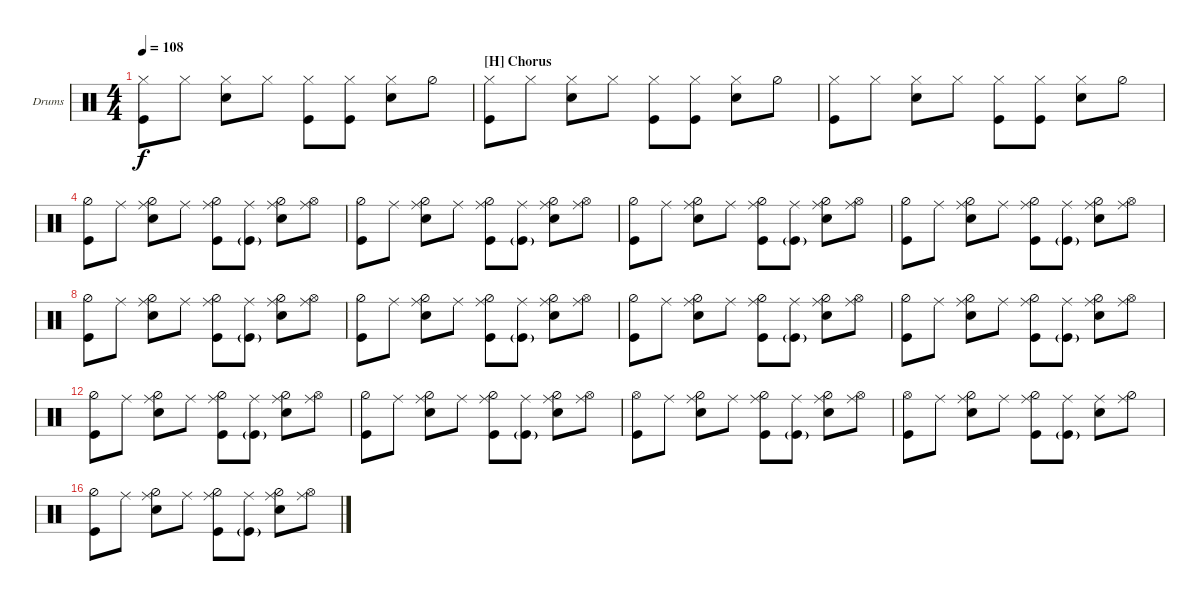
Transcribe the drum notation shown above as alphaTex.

\defaultSystemsLayout 4
\bracketExtendMode nobrackets
\firstSystemTrackNameOrientation horizontal
\otherSystemsTrackNameOrientation horizontal
\defaultBarNumberDisplay FirstOfSystem
\track ("Drumkit" "Drums") {instrument percussion}
\staff {score}
\articulation defaults
\ts (4 4)
\tempo 108
\clef neutral
\ks c
("Kick (hit)" "Hi-Hat (closed)").8{dy f} "Hi-Hat (closed)".8 ("Snare (hit) 2" "Hi-Hat (closed)").8 "Hi-Hat (closed)".8 ("Hi-Hat (closed)" "Kick (hit)").8 ("Hi-Hat (closed)" "Kick (hit)").8 ("Snare (hit) 2" "Hi-Hat (closed)").8 "Hi-Hat (half)".8 |
\section ("H" "Chorus")
("Kick (hit)" "Hi-Hat (closed)").8 "Hi-Hat (closed)".8 ("Snare (hit) 2" "Hi-Hat (closed)").8 "Hi-Hat (closed)".8 ("Hi-Hat (closed)" "Kick (hit)").8 ("Hi-Hat (closed)" "Kick (hit)").8 ("Snare (hit) 2" "Hi-Hat (closed)").8 "Hi-Hat (half)".8 |
("Kick (hit)" "Hi-Hat (closed)").8 "Hi-Hat (closed)".8 ("Snare (hit) 2" "Hi-Hat (closed)").8 "Hi-Hat (closed)".8 ("Hi-Hat (closed)" "Kick (hit)").8 ("Hi-Hat (closed)" "Kick (hit)").8 ("Snare (hit) 2" "Hi-Hat (closed)").8 "Hi-Hat (half)".8 |
("Kick (hit)" "Hi-Hat (half)").8 "Ride (middle)".8 ("Snare (hit) 2" "Hi-Hat (half)" "Ride (middle)").8 "Ride (middle)".8 ("Kick (hit)" "Hi-Hat (half)" "Ride (middle)").8 ("Kick (hit)"{g} "Ride (middle)").8 ("Snare (hit) 2" "Hi-Hat (half)" "Ride (middle)").8 ("Hi-Hat (open)" "Ride (middle)").8 |
("Kick (hit)" "Hi-Hat (half)").8 "Ride (middle)".8 ("Snare (hit) 2" "Hi-Hat (half)" "Ride (middle)").8 "Ride (middle)".8 ("Kick (hit)" "Hi-Hat (half)" "Ride (middle)").8 ("Kick (hit)"{g} "Ride (middle)").8 ("Snare (hit) 2" "Hi-Hat (half)" "Ride (middle)").8 ("Hi-Hat (open)" "Ride (middle)").8 |
("Kick (hit)" "Hi-Hat (half)").8 "Ride (middle)".8 ("Snare (hit) 2" "Hi-Hat (half)" "Ride (middle)").8 "Ride (middle)".8 ("Kick (hit)" "Hi-Hat (half)" "Ride (middle)").8 ("Kick (hit)"{g} "Ride (middle)").8 ("Snare (hit) 2" "Hi-Hat (half)" "Ride (middle)").8 ("Hi-Hat (open)" "Ride (middle)").8 |
("Kick (hit)" "Hi-Hat (half)").8 "Ride (middle)".8 ("Snare (hit) 2" "Hi-Hat (half)" "Ride (middle)").8 "Ride (middle)".8 ("Kick (hit)" "Hi-Hat (half)" "Ride (middle)").8 ("Kick (hit)"{g} "Ride (middle)").8 ("Snare (hit) 2" "Hi-Hat (half)" "Ride (middle)").8 ("Hi-Hat (open)" "Ride (middle)").8 |
("Kick (hit)" "Hi-Hat (half)").8 "Ride (middle)".8 ("Snare (hit) 2" "Hi-Hat (half)" "Ride (middle)").8 "Ride (middle)".8 ("Kick (hit)" "Hi-Hat (half)" "Ride (middle)").8 ("Kick (hit)"{g} "Ride (middle)").8 ("Snare (hit) 2" "Hi-Hat (half)" "Ride (middle)").8 ("Hi-Hat (open)" "Ride (middle)").8 |
("Kick (hit)" "Hi-Hat (half)").8 "Ride (middle)".8 ("Snare (hit) 2" "Hi-Hat (half)" "Ride (middle)").8 "Ride (middle)".8 ("Kick (hit)" "Hi-Hat (half)" "Ride (middle)").8 ("Kick (hit)"{g} "Ride (middle)").8 ("Snare (hit) 2" "Hi-Hat (half)" "Ride (middle)").8 ("Hi-Hat (open)" "Ride (middle)").8 |
("Kick (hit)" "Hi-Hat (half)").8 "Ride (middle)".8 ("Snare (hit) 2" "Hi-Hat (half)" "Ride (middle)").8 "Ride (middle)".8 ("Kick (hit)" "Hi-Hat (half)" "Ride (middle)").8 ("Kick (hit)"{g} "Ride (middle)").8 ("Snare (hit) 2" "Hi-Hat (half)" "Ride (middle)").8 ("Hi-Hat (open)" "Ride (middle)").8 |
("Kick (hit)" "Hi-Hat (half)").8 "Ride (middle)".8 ("Snare (hit) 2" "Hi-Hat (half)" "Ride (middle)").8 "Ride (middle)".8 ("Kick (hit)" "Hi-Hat (half)" "Ride (middle)").8 ("Kick (hit)"{g} "Ride (middle)").8 ("Snare (hit) 2" "Hi-Hat (half)" "Ride (middle)").8 ("Hi-Hat (open)" "Ride (middle)").8 |
("Kick (hit)" "Hi-Hat (half)").8 "Ride (middle)".8 ("Snare (hit) 2" "Hi-Hat (half)" "Ride (middle)").8 "Ride (middle)".8 ("Kick (hit)" "Hi-Hat (half)" "Ride (middle)").8 ("Kick (hit)"{g} "Ride (middle)").8 ("Snare (hit) 2" "Hi-Hat (half)" "Ride (middle)").8 ("Hi-Hat (open)" "Ride (middle)").8 |
("Kick (hit)" "Hi-Hat (half)").8 "Ride (middle)".8 ("Snare (hit) 2" "Hi-Hat (half)" "Ride (middle)").8 "Ride (middle)".8 ("Kick (hit)" "Hi-Hat (half)" "Ride (middle)").8 ("Kick (hit)"{g} "Ride (middle)").8 ("Snare (hit) 2" "Hi-Hat (half)" "Ride (middle)").8 ("Hi-Hat (open)" "Ride (middle)").8 |
("Kick (hit)" "Hi-Hat (open)").8 "Ride (middle)".8 ("Snare (hit) 2" "Hi-Hat (half)" "Ride (middle)").8 "Ride (middle)".8 ("Kick (hit)" "Hi-Hat (half)" "Ride (middle)").8 ("Kick (hit)"{g} "Ride (middle)").8 ("Snare (hit) 2" "Hi-Hat (half)" "Ride (middle)").8 ("Hi-Hat (open)" "Ride (middle)").8 |
("Kick (hit)" "Hi-Hat (open)").8 "Ride (middle)".8 ("Snare (hit) 2" "Hi-Hat (half)" "Ride (middle)").8 "Ride (middle)".8 ("Kick (hit)" "Hi-Hat (half)" "Ride (middle)").8 ("Kick (hit)"{g} "Ride (middle)").8 ("Snare (hit) 2" "Ride (middle)").8 ("Hi-Hat (half)" "Ride (middle)").8 |
("Kick (hit)" "Hi-Hat (half)").8 "Ride (middle)".8 ("Snare (hit) 2" "Hi-Hat (half)" "Ride (middle)").8 "Ride (middle)".8 ("Kick (hit)" "Hi-Hat (half)" "Ride (middle)").8 ("Kick (hit)"{g} "Ride (middle)").8 ("Snare (hit) 2" "Hi-Hat (half)" "Ride (middle)").8 ("Hi-Hat (open)" "Ride (middle)").8
